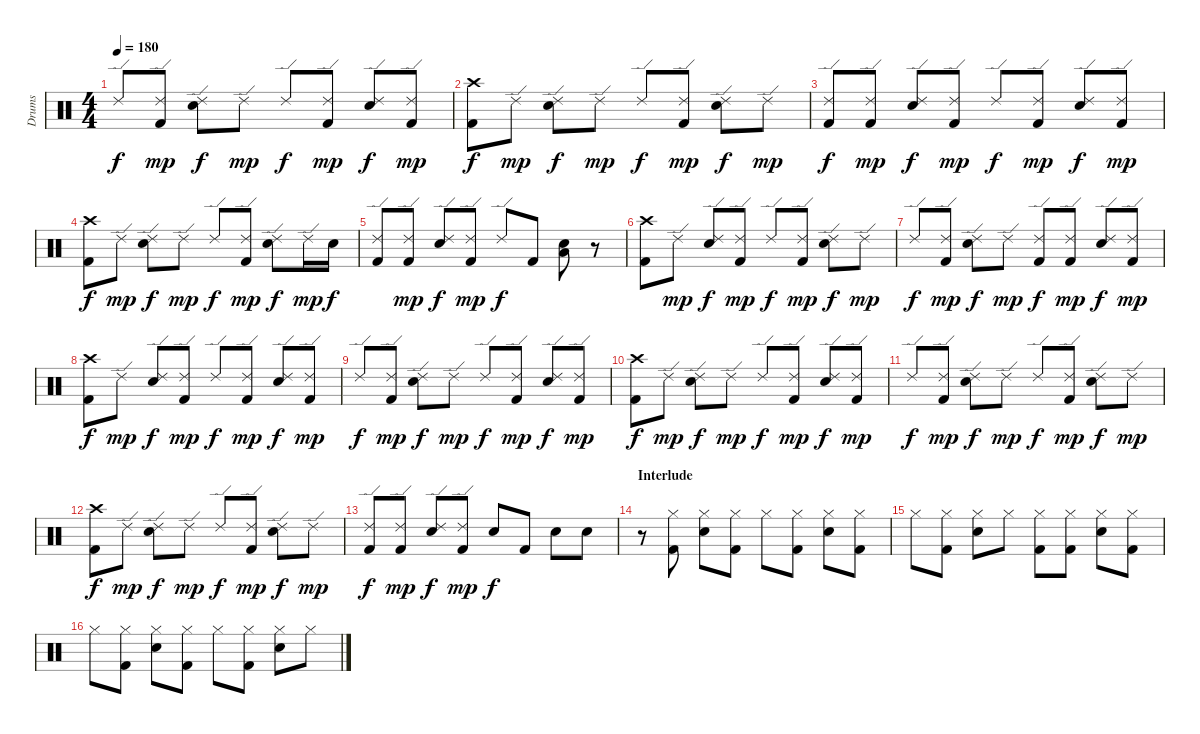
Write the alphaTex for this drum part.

\track ("Drums" "Drums") {instrument percussion}
\staff {score}
\articulation defaults
\ts (4 4)
\tempo 180
\clef neutral
\ks c "Ride (edge) 2".8{dy f}
("Ride (edge) 2" "Kick (hit) 2").8{dy mp} ("Ride (edge) 2" "Electric Snare (hit)").8{dy f} "Ride (edge) 2".8{dy mp} "Ride (edge) 2".8{dy f} ("Ride (edge) 2" "Kick (hit) 2").8{dy mp} ("Ride (edge) 2" "Electric Snare (hit)").8{dy f} ("Ride (edge) 2" "Kick (hit) 2").8{dy mp} |
("Crash high (hit)" "Kick (hit) 2").8{dy f} "Ride (edge) 2".8{dy mp} ("Ride (edge) 2" "Electric Snare (hit)").8{dy f} "Ride (edge) 2".8{dy mp} "Ride (edge) 2".8{dy f} ("Ride (edge) 2" "Kick (hit) 2").8{dy mp} ("Ride (edge) 2" "Electric Snare (hit)").8{dy f} "Ride (edge) 2".8{dy mp} |
("Ride (edge) 2" "Kick (hit) 2").8{dy f} ("Ride (edge) 2" "Kick (hit) 2").8{dy mp} ("Ride (edge) 2" "Electric Snare (hit)").8{dy f} ("Ride (edge) 2" "Kick (hit) 2").8{dy mp} "Ride (edge) 2".8{dy f} ("Ride (edge) 2" "Kick (hit) 2").8{dy mp} ("Ride (edge) 2" "Electric Snare (hit)").8{dy f} ("Ride (edge) 2" "Kick (hit) 2").8{dy mp} |
("Crash high (hit)" "Kick (hit) 2").8{dy f} "Ride (edge) 2".8{dy mp} ("Ride (edge) 2" "Electric Snare (hit)").8{dy f} "Ride (edge) 2".8{dy mp} "Ride (edge) 2".8{dy f} ("Ride (edge) 2" "Kick (hit) 2").8{dy mp} ("Ride (edge) 2" "Electric Snare (hit)").8{dy f} "Ride (edge) 2".16{dy mp} "Electric Snare (hit)".16{dy f} |
("Ride (edge) 2" "Kick (hit) 2").8 ("Ride (edge) 2" "Kick (hit) 2").8{dy mp} ("Ride (edge) 2" "Electric Snare (hit)").8{dy f} ("Ride (edge) 2" "Kick (hit) 2").8{dy mp} "Ride (edge) 2".8{dy f} "Kick (hit) 2".8 ("Electric Snare (hit)" "Low Floor Tom (hit)").8 r.8 |
("Crash high (hit)" "Kick (hit) 2").8 "Ride (edge) 2".8{dy mp} ("Ride (edge) 2" "Electric Snare (hit)").8{dy f} ("Ride (edge) 2" "Kick (hit) 2").8{dy mp} "Ride (edge) 2".8{dy f} ("Ride (edge) 2" "Kick (hit) 2").8{dy mp} ("Ride (edge) 2" "Electric Snare (hit)").8{dy f} "Ride (edge) 2".8{dy mp} |
"Ride (edge) 2".8{dy f} ("Ride (edge) 2" "Kick (hit) 2").8{dy mp} ("Ride (edge) 2" "Electric Snare (hit)").8{dy f} "Ride (edge) 2".8{dy mp} ("Ride (edge) 2" "Kick (hit) 2").8{dy f} ("Ride (edge) 2" "Kick (hit) 2").8{dy mp} ("Ride (edge) 2" "Electric Snare (hit)").8{dy f} ("Ride (edge) 2" "Kick (hit) 2").8{dy mp} |
("Crash high (hit)" "Kick (hit) 2").8{dy f} "Ride (edge) 2".8{dy mp} ("Ride (edge) 2" "Electric Snare (hit)").8{dy f} ("Ride (edge) 2" "Kick (hit) 2").8{dy mp} "Ride (edge) 2".8{dy f} ("Ride (edge) 2" "Kick (hit) 2").8{dy mp} ("Ride (edge) 2" "Electric Snare (hit)").8{dy f} ("Ride (edge) 2" "Kick (hit) 2").8{dy mp} |
"Ride (edge) 2".8{dy f} ("Ride (edge) 2" "Kick (hit) 2").8{dy mp} ("Ride (edge) 2" "Electric Snare (hit)").8{dy f} "Ride (edge) 2".8{dy mp} "Ride (edge) 2".8{dy f} ("Ride (edge) 2" "Kick (hit) 2").8{dy mp} ("Ride (edge) 2" "Electric Snare (hit)").8{dy f} ("Ride (edge) 2" "Kick (hit) 2").8{dy mp} |
("Crash high (hit)" "Kick (hit) 2").8{dy f} "Ride (edge) 2".8{dy mp} ("Ride (edge) 2" "Electric Snare (hit)").8{dy f} "Ride (edge) 2".8{dy mp} "Ride (edge) 2".8{dy f} ("Ride (edge) 2" "Kick (hit) 2").8{dy mp} ("Ride (edge) 2" "Electric Snare (hit)").8{dy f} ("Ride (edge) 2" "Kick (hit) 2").8{dy mp} |
"Ride (edge) 2".8{dy f} ("Ride (edge) 2" "Kick (hit) 2").8{dy mp} ("Ride (edge) 2" "Electric Snare (hit)").8{dy f} "Ride (edge) 2".8{dy mp} "Ride (edge) 2".8{dy f} ("Ride (edge) 2" "Kick (hit) 2").8{dy mp} ("Ride (edge) 2" "Electric Snare (hit)").8{dy f} "Ride (edge) 2".8{dy mp} |
("Crash high (hit)" "Kick (hit) 2").8{dy f} "Ride (edge) 2".8{dy mp} ("Ride (edge) 2" "Electric Snare (hit)").8{dy f} "Ride (edge) 2".8{dy mp} "Ride (edge) 2".8{dy f} ("Ride (edge) 2" "Kick (hit) 2").8{dy mp} ("Ride (edge) 2" "Electric Snare (hit)").8{dy f} "Ride (edge) 2".8{dy mp} |
("Ride (edge) 2" "Kick (hit) 2").8{dy f} ("Ride (edge) 2" "Kick (hit) 2").8{dy mp} ("Ride (edge) 2" "Electric Snare (hit)").8{dy f} ("Ride (edge) 2" "Kick (hit) 2").8{dy mp} "Electric Snare (hit)".8{dy f} "Kick (hit) 2".8 "Electric Snare (hit)".8 "Electric Snare (hit)".8 |
\section ("" "Interlude")
r.8 ("Hi-Hat (closed)" "Kick (hit) 2").8 ("Hi-Hat (closed)" "Electric Snare (hit)").8 ("Hi-Hat (closed)" "Kick (hit) 2").8 "Hi-Hat (closed)".8 ("Hi-Hat (closed)" "Kick (hit) 2").8 ("Hi-Hat (closed)" "Electric Snare (hit)").8 ("Hi-Hat (closed)" "Kick (hit) 2").8 |
"Hi-Hat (closed)".8 ("Hi-Hat (closed)" "Kick (hit) 2").8 ("Hi-Hat (closed)" "Electric Snare (hit)").8 "Hi-Hat (closed)".8 ("Hi-Hat (closed)" "Kick (hit) 2").8 ("Hi-Hat (closed)" "Kick (hit) 2").8 ("Hi-Hat (closed)" "Electric Snare (hit)").8 ("Hi-Hat (closed)" "Kick (hit) 2").8 |
"Hi-Hat (closed)".8 ("Hi-Hat (closed)" "Kick (hit) 2").8 ("Hi-Hat (closed)" "Electric Snare (hit)").8 ("Hi-Hat (closed)" "Kick (hit) 2").8 "Hi-Hat (closed)".8 ("Hi-Hat (closed)" "Kick (hit) 2").8 ("Hi-Hat (closed)" "Electric Snare (hit)").8 "Hi-Hat (closed)".8
